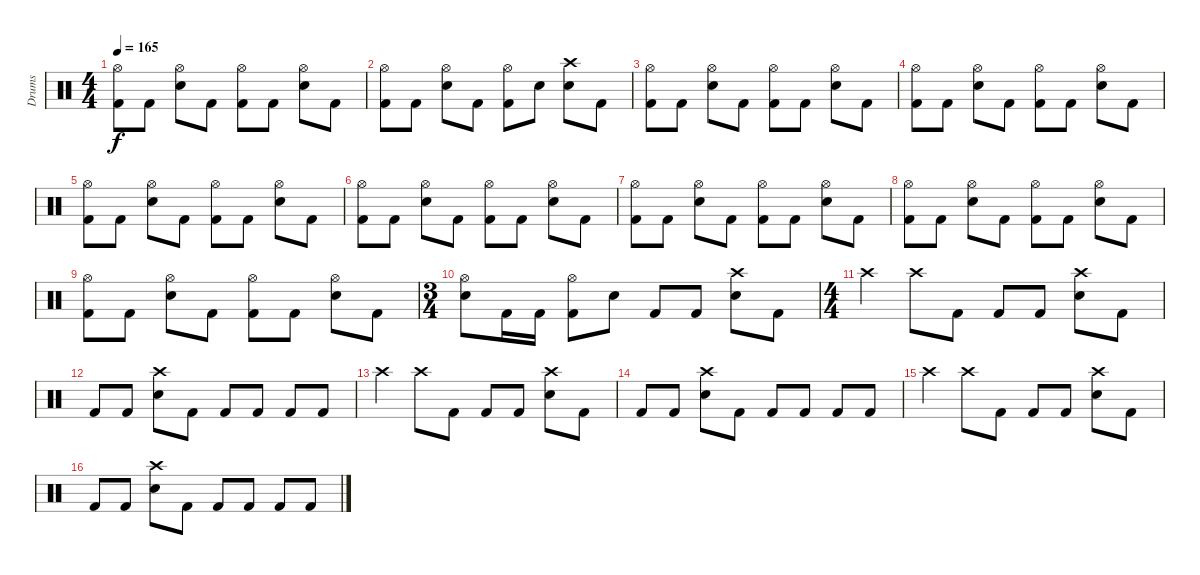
\track ("Drums" "Drums") {instrument percussion}
\staff {score}
\articulation defaults
\ts (4 4)
\tempo 165
\clef neutral
\ks c
("Hi-Hat (open)" "Kick (hit) 2").8{dy f} "Kick (hit) 2".8 ("Hi-Hat (open)" "Snare (hit) 2").8 "Kick (hit) 2".8 ("Hi-Hat (open)" "Kick (hit) 2").8 "Kick (hit) 2".8 ("Hi-Hat (open)" "Snare (hit) 2").8 "Kick (hit) 2".8 |
("Hi-Hat (open)" "Kick (hit) 2").8 "Kick (hit) 2".8 ("Hi-Hat (open)" "Snare (hit) 2").8 "Kick (hit) 2".8 ("Hi-Hat (open)" "Kick (hit) 2").8 "Snare (hit) 2".8 ("Crash high (hit)" "Snare (hit) 2").8 "Kick (hit) 2".8 |
("Hi-Hat (open)" "Kick (hit) 2").8 "Kick (hit) 2".8 ("Hi-Hat (open)" "Snare (hit) 2").8 "Kick (hit) 2".8 ("Hi-Hat (open)" "Kick (hit) 2").8 "Kick (hit) 2".8 ("Hi-Hat (open)" "Snare (hit) 2").8 "Kick (hit) 2".8 |
("Hi-Hat (open)" "Kick (hit) 2").8 "Kick (hit) 2".8 ("Hi-Hat (open)" "Snare (hit) 2").8 "Kick (hit) 2".8 ("Hi-Hat (open)" "Kick (hit) 2").8 "Kick (hit) 2".8 ("Hi-Hat (open)" "Snare (hit) 2").8 "Kick (hit) 2".8 |
("Hi-Hat (open)" "Kick (hit) 2").8 "Kick (hit) 2".8 ("Hi-Hat (open)" "Snare (hit) 2").8 "Kick (hit) 2".8 ("Hi-Hat (open)" "Kick (hit) 2").8 "Kick (hit) 2".8 ("Hi-Hat (open)" "Snare (hit) 2").8 "Kick (hit) 2".8 |
("Hi-Hat (open)" "Kick (hit) 2").8 "Kick (hit) 2".8 ("Hi-Hat (open)" "Snare (hit) 2").8 "Kick (hit) 2".8 ("Hi-Hat (open)" "Kick (hit) 2").8 "Kick (hit) 2".8 ("Hi-Hat (open)" "Snare (hit) 2").8 "Kick (hit) 2".8 |
("Hi-Hat (open)" "Kick (hit) 2").8 "Kick (hit) 2".8 ("Hi-Hat (open)" "Snare (hit) 2").8 "Kick (hit) 2".8 ("Hi-Hat (open)" "Kick (hit) 2").8 "Kick (hit) 2".8 ("Hi-Hat (open)" "Snare (hit) 2").8 "Kick (hit) 2".8 |
("Hi-Hat (open)" "Kick (hit) 2").8 "Kick (hit) 2".8 ("Hi-Hat (open)" "Snare (hit) 2").8 "Kick (hit) 2".8 ("Hi-Hat (open)" "Kick (hit) 2").8 "Kick (hit) 2".8 ("Hi-Hat (open)" "Snare (hit) 2").8 "Kick (hit) 2".8 |
("Hi-Hat (open)" "Kick (hit) 2").8 "Kick (hit) 2".8 ("Hi-Hat (open)" "Snare (hit) 2").8 "Kick (hit) 2".8 ("Hi-Hat (open)" "Kick (hit) 2").8 "Kick (hit) 2".8 ("Hi-Hat (open)" "Snare (hit) 2").8 "Kick (hit) 2".8 |
\ts (3 4)
("Hi-Hat (open)" "Snare (hit) 2").8 "Kick (hit) 2".16 "Kick (hit) 2".16 ("Hi-Hat (open)" "Kick (hit) 2").8 "Snare (hit) 2".8 "Kick (hit) 2".8 "Kick (hit) 2".8 ("Crash high (hit)" "Snare (hit) 2").8 "Kick (hit) 2".8 |
\ts (4 4)
"Crash high (hit)".4 "Crash high (hit)".8 "Kick (hit) 2".8 "Kick (hit) 2".8 "Kick (hit) 2".8 ("Crash high (hit)" "Snare (hit) 2").8 "Kick (hit) 2".8 |
"Kick (hit) 2".8 "Kick (hit) 2".8 ("Crash high (hit)" "Snare (hit) 2").8 "Kick (hit) 2".8 "Kick (hit) 2".8 "Kick (hit) 2".8 "Kick (hit) 2".8 "Kick (hit) 2".8 |
"Crash high (hit)".4 "Crash high (hit)".8 "Kick (hit) 2".8 "Kick (hit) 2".8 "Kick (hit) 2".8 ("Crash high (hit)" "Snare (hit) 2").8 "Kick (hit) 2".8 |
"Kick (hit) 2".8 "Kick (hit) 2".8 ("Crash high (hit)" "Snare (hit) 2").8 "Kick (hit) 2".8 "Kick (hit) 2".8 "Kick (hit) 2".8 "Kick (hit) 2".8 "Kick (hit) 2".8 |
"Crash high (hit)".4 "Crash high (hit)".8 "Kick (hit) 2".8 "Kick (hit) 2".8 "Kick (hit) 2".8 ("Crash high (hit)" "Snare (hit) 2").8 "Kick (hit) 2".8 |
"Kick (hit) 2".8 "Kick (hit) 2".8 ("Crash high (hit)" "Snare (hit) 2").8 "Kick (hit) 2".8 "Kick (hit) 2".8 "Kick (hit) 2".8 "Kick (hit) 2".8 "Kick (hit) 2".8
